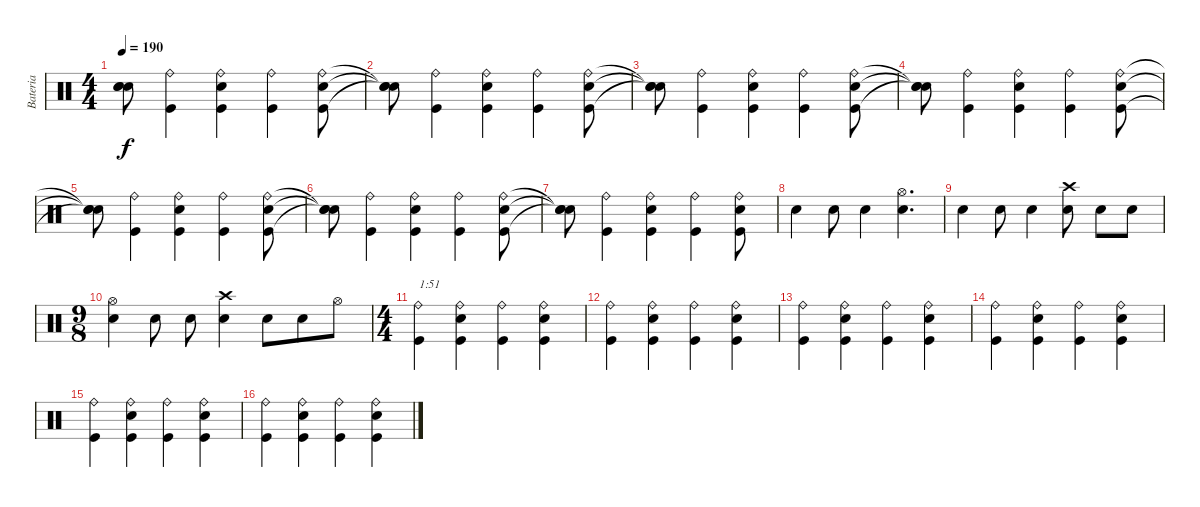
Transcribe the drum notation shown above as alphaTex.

\track ("Bateria" "Bateria") {instrument percussion}
\staff {score}
\articulation defaults
\ts (4 4)
\tempo 190
\clef neutral
\ks c
("Snare (hit)"{t} "Snare (hit)"{t} "Snare (hit)"{t}).8{dy f} ("Kick (hit)" "Ride (bell)").4 ("Kick (hit)" "Snare (hit) 2" "Ride (bell)").4 ("Kick (hit)" "Ride (bell)").4 ("Kick (hit)" "Snare (hit) 2" "Ride (bell)").8 |
("Snare (hit)"{t} "Snare (hit)"{t} "Snare (hit)"{t}).8 ("Kick (hit)" "Ride (bell)").4 ("Kick (hit)" "Snare (hit) 2" "Ride (bell)").4 ("Kick (hit)" "Ride (bell)").4 ("Kick (hit)" "Snare (hit) 2" "Ride (bell)").8 |
("Snare (hit)"{t} "Snare (hit)"{t} "Snare (hit)"{t}).8 ("Kick (hit)" "Ride (bell)").4 ("Kick (hit)" "Snare (hit) 2" "Ride (bell)").4 ("Kick (hit)" "Ride (bell)").4 ("Kick (hit)" "Snare (hit) 2" "Ride (bell)").8 |
("Snare (hit)"{t} "Snare (hit)"{t} "Snare (hit)"{t}).8 ("Kick (hit)" "Ride (bell)").4 ("Kick (hit)" "Snare (hit) 2" "Ride (bell)").4 ("Kick (hit)" "Ride (bell)").4 ("Kick (hit)" "Snare (hit) 2" "Ride (bell)").8 |
("Snare (hit)"{t} "Snare (hit)"{t} "Snare (hit)"{t}).8 ("Kick (hit)" "Ride (bell)").4 ("Kick (hit)" "Snare (hit) 2" "Ride (bell)").4 ("Kick (hit)" "Ride (bell)").4 ("Kick (hit)" "Snare (hit) 2" "Ride (bell)").8 |
("Snare (hit)"{t} "Snare (hit)"{t} "Snare (hit)"{t}).8 ("Kick (hit)" "Ride (bell)").4 ("Kick (hit)" "Snare (hit) 2" "Ride (bell)").4 ("Kick (hit)" "Ride (bell)").4 ("Kick (hit)" "Snare (hit) 2" "Ride (bell)").8 |
("Snare (hit)"{t} "Snare (hit)"{t} "Snare (hit)"{t}).8 ("Kick (hit)" "Ride (bell)").4 ("Kick (hit)" "Snare (hit) 2" "Ride (bell)").4 ("Kick (hit)" "Ride (bell)").4 ("Kick (hit)" "Snare (hit) 2" "Ride (bell)").8 |
"Snare (hit) 2".4 "Snare (hit) 2".8 "Snare (hit) 2".4 ("Snare (hit) 2" "Hi-Hat (open)").4{d} |
"Snare (hit) 2".4 "Snare (hit) 2".8 "Snare (hit) 2".4 ("Snare (hit) 2" "Crash high (hit)").8 "Snare (hit) 2".8 "Snare (hit) 2".8 |
\ts (9 8)
("Snare (hit) 2" "Hi-Hat (open)").4 "Snare (hit) 2".8 "Snare (hit) 2".8 ("Snare (hit) 2" "Crash high (hit)").4 "Snare (hit) 2".8 "Snare (hit) 2".8 "Hi-Hat (open)".8 |
\ts (4 4)
("Kick (hit)" "Ride (bell)").4{txt "1:51"} ("Kick (hit)" "Snare (hit) 2" "Ride (bell)").4 ("Kick (hit)" "Ride (bell)").4 ("Kick (hit)" "Snare (hit) 2" "Ride (bell)").4 |
("Kick (hit)" "Ride (bell)").4 ("Kick (hit)" "Snare (hit) 2" "Ride (bell)").4 ("Kick (hit)" "Ride (bell)").4 ("Kick (hit)" "Snare (hit) 2" "Ride (bell)").4 |
("Kick (hit)" "Ride (bell)").4 ("Kick (hit)" "Snare (hit) 2" "Ride (bell)").4 ("Kick (hit)" "Ride (bell)").4 ("Kick (hit)" "Snare (hit) 2" "Ride (bell)").4 |
("Kick (hit)" "Ride (bell)").4 ("Kick (hit)" "Snare (hit) 2" "Ride (bell)").4 ("Kick (hit)" "Ride (bell)").4 ("Kick (hit)" "Snare (hit) 2" "Ride (bell)").4 |
("Kick (hit)" "Ride (bell)").4 ("Kick (hit)" "Snare (hit) 2" "Ride (bell)").4 ("Kick (hit)" "Ride (bell)").4 ("Kick (hit)" "Snare (hit) 2" "Ride (bell)").4 |
("Kick (hit)" "Ride (bell)").4 ("Kick (hit)" "Snare (hit) 2" "Ride (bell)").4 ("Kick (hit)" "Ride (bell)").4 ("Kick (hit)" "Snare (hit) 2" "Ride (bell)").4
